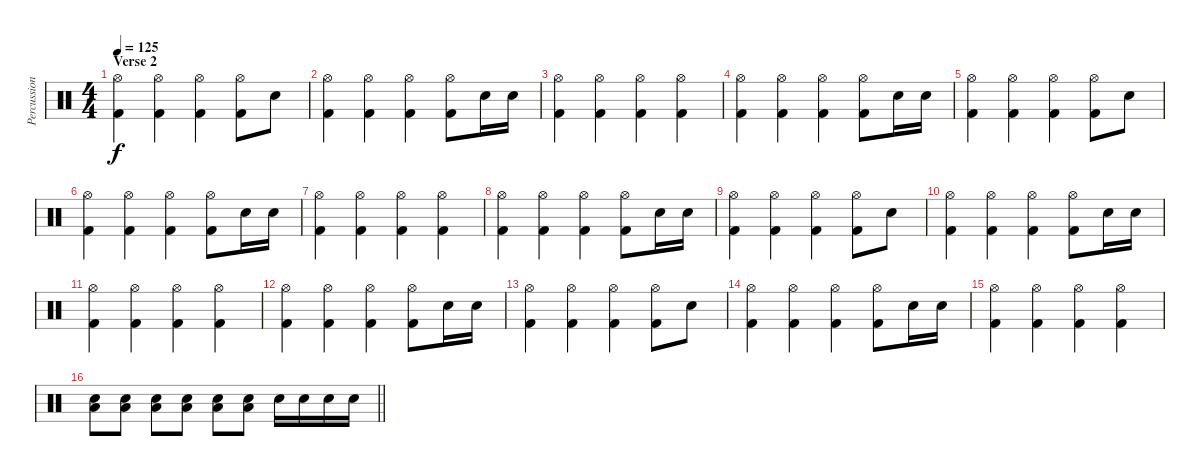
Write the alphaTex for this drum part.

\track ("Percussion" "Percussion") {instrument percussion}
\staff {score}
\articulation defaults
\ts (4 4)
\section ("" "Verse 2")
\tempo 125
\clef neutral
\ks c
("Hi-Hat (open)" "Kick (hit) 2").4{dy f} ("Hi-Hat (open)" "Kick (hit) 2").4 ("Hi-Hat (open)" "Kick (hit) 2").4 ("Hi-Hat (open)" "Kick (hit) 2").8 "Snare (hit) 2".8 |
("Hi-Hat (open)" "Kick (hit) 2").4 ("Hi-Hat (open)" "Kick (hit) 2").4 ("Hi-Hat (open)" "Kick (hit) 2").4 ("Hi-Hat (open)" "Kick (hit) 2").8 "Snare (hit) 2".16 "Snare (hit) 2".16 |
("Hi-Hat (open)" "Kick (hit) 2").4 ("Hi-Hat (open)" "Kick (hit) 2").4 ("Hi-Hat (open)" "Kick (hit) 2").4 ("Hi-Hat (open)" "Kick (hit) 2").4 |
("Hi-Hat (open)" "Kick (hit) 2").4 ("Hi-Hat (open)" "Kick (hit) 2").4 ("Hi-Hat (open)" "Kick (hit) 2").4 ("Hi-Hat (open)" "Kick (hit) 2").8 "Snare (hit) 2".16 "Snare (hit) 2".16 |
("Hi-Hat (open)" "Kick (hit) 2").4 ("Hi-Hat (open)" "Kick (hit) 2").4 ("Hi-Hat (open)" "Kick (hit) 2").4 ("Hi-Hat (open)" "Kick (hit) 2").8 "Snare (hit) 2".8 |
("Hi-Hat (open)" "Kick (hit) 2").4 ("Hi-Hat (open)" "Kick (hit) 2").4 ("Hi-Hat (open)" "Kick (hit) 2").4 ("Hi-Hat (open)" "Kick (hit) 2").8 "Snare (hit) 2".16 "Snare (hit) 2".16 |
("Hi-Hat (open)" "Kick (hit) 2").4 ("Hi-Hat (open)" "Kick (hit) 2").4 ("Hi-Hat (open)" "Kick (hit) 2").4 ("Hi-Hat (open)" "Kick (hit) 2").4 |
("Hi-Hat (open)" "Kick (hit) 2").4 ("Hi-Hat (open)" "Kick (hit) 2").4 ("Hi-Hat (open)" "Kick (hit) 2").4 ("Hi-Hat (open)" "Kick (hit) 2").8 "Snare (hit) 2".16 "Snare (hit) 2".16 |
("Hi-Hat (open)" "Kick (hit) 2").4 ("Hi-Hat (open)" "Kick (hit) 2").4 ("Hi-Hat (open)" "Kick (hit) 2").4 ("Hi-Hat (open)" "Kick (hit) 2").8 "Snare (hit) 2".8 |
("Hi-Hat (open)" "Kick (hit) 2").4 ("Hi-Hat (open)" "Kick (hit) 2").4 ("Hi-Hat (open)" "Kick (hit) 2").4 ("Hi-Hat (open)" "Kick (hit) 2").8 "Snare (hit) 2".16 "Snare (hit) 2".16 |
("Hi-Hat (open)" "Kick (hit) 2").4 ("Hi-Hat (open)" "Kick (hit) 2").4 ("Hi-Hat (open)" "Kick (hit) 2").4 ("Hi-Hat (open)" "Kick (hit) 2").4 |
("Hi-Hat (open)" "Kick (hit) 2").4 ("Hi-Hat (open)" "Kick (hit) 2").4 ("Hi-Hat (open)" "Kick (hit) 2").4 ("Hi-Hat (open)" "Kick (hit) 2").8 "Snare (hit) 2".16 "Snare (hit) 2".16 |
("Hi-Hat (open)" "Kick (hit) 2").4 ("Hi-Hat (open)" "Kick (hit) 2").4 ("Hi-Hat (open)" "Kick (hit) 2").4 ("Hi-Hat (open)" "Kick (hit) 2").8 "Snare (hit) 2".8 |
("Hi-Hat (open)" "Kick (hit) 2").4 ("Hi-Hat (open)" "Kick (hit) 2").4 ("Hi-Hat (open)" "Kick (hit) 2").4 ("Hi-Hat (open)" "Kick (hit) 2").8 "Snare (hit) 2".16 "Snare (hit) 2".16 |
("Hi-Hat (open)" "Kick (hit) 2").4 ("Hi-Hat (open)" "Kick (hit) 2").4 ("Hi-Hat (open)" "Kick (hit) 2").4 ("Hi-Hat (open)" "Kick (hit) 2").4 |
\barLineRight lightlight
("Snare (hit) 2" "Low Floor Tom (hit)").8 ("Snare (hit) 2" "Low Floor Tom (hit)").8 ("Snare (hit) 2" "Low Floor Tom (hit)").8 ("Snare (hit) 2" "Low Floor Tom (hit)").8 ("Snare (hit) 2" "Low Floor Tom (hit)").8 ("Snare (hit) 2" "Low Floor Tom (hit)").8 "Snare (hit) 2".16 "Snare (hit) 2".16 "Snare (hit) 2".16 "Snare (hit) 2".16
